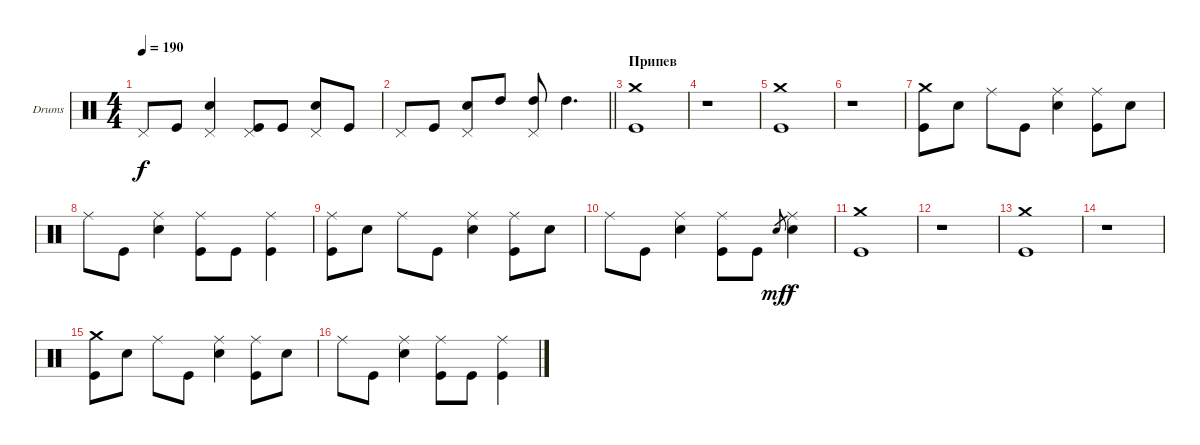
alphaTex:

\bracketExtendMode groupsimilarinstruments
\firstSystemTrackNameOrientation horizontal
\otherSystemsTrackNameOrientation horizontal
\track ("Максим Удалов" "Drums") {instrument percussion}
\staff {score}
\articulation defaults
\ts (4 4)
\tempo 190
\clef neutral
\ks c "Pedal Hi-Hat (hit)".8{dy f} "Kick (hit)".8
("Snare (hit) 2" "Pedal Hi-Hat (hit)").4 ("Kick (hit)" "Pedal Hi-Hat (hit)").8 "Kick (hit)".8 ("Snare (hit) 2" "Pedal Hi-Hat (hit)").8 "Kick (hit)".8 |
\barLineRight lightlight "Pedal Hi-Hat (hit)".8 "Kick (hit)".8
("Snare (hit) 2" "Pedal Hi-Hat (hit)").8 "High Tom (hit)".8 ("High Tom (hit)" "Pedal Hi-Hat (hit)").8 "High Tom (hit)".4{d} |
\section ("" "Припев")
("Kick (hit)" "Crash medium (hit)").1 |
r.1 |
("Kick (hit)" "Crash medium (hit)").1 |
r.1 |
("Kick (hit)" "Crash medium (hit)").8 "Snare (hit) 2".8 "Ride (middle)".8 "Kick (hit)".8 ("Snare (hit) 2" "Ride (middle)").4 ("Kick (hit)" "Ride (middle)").8 "Snare (hit) 2".8 |
"Ride (middle)".8 "Kick (hit)".8 ("Snare (hit) 2" "Ride (middle)").4 ("Kick (hit)" "Ride (middle)").8 "Kick (hit)".8 ("Kick (hit)" "Ride (middle)").4 |
("Kick (hit)" "Ride (middle)").8 "Snare (hit) 2".8 "Ride (middle)".8 "Kick (hit)".8 ("Snare (hit) 2" "Ride (middle)").4 ("Kick (hit)" "Ride (middle)").8 "Snare (hit) 2".8 |
"Ride (middle)".8 "Kick (hit)".8 ("Snare (hit) 2" "Ride (middle)").4 ("Kick (hit)" "Ride (middle)").8 "Kick (hit)".8 "Snare (hit) 2".8{gr dy mf} ("Snare (hit) 2" "Ride (middle)").4{dy f} |
("Kick (hit)" "Crash medium (hit)").1 |
r.1 |
("Kick (hit)" "Crash medium (hit)").1 |
r.1 |
("Kick (hit)" "Crash medium (hit)").8 "Snare (hit) 2".8 "Ride (middle)".8 "Kick (hit)".8 ("Snare (hit) 2" "Ride (middle)").4 ("Kick (hit)" "Ride (middle)").8 "Snare (hit) 2".8 |
"Ride (middle)".8 "Kick (hit)".8 ("Snare (hit) 2" "Ride (middle)").4 ("Kick (hit)" "Ride (middle)").8 "Kick (hit)".8 ("Kick (hit)" "Ride (middle)").4
